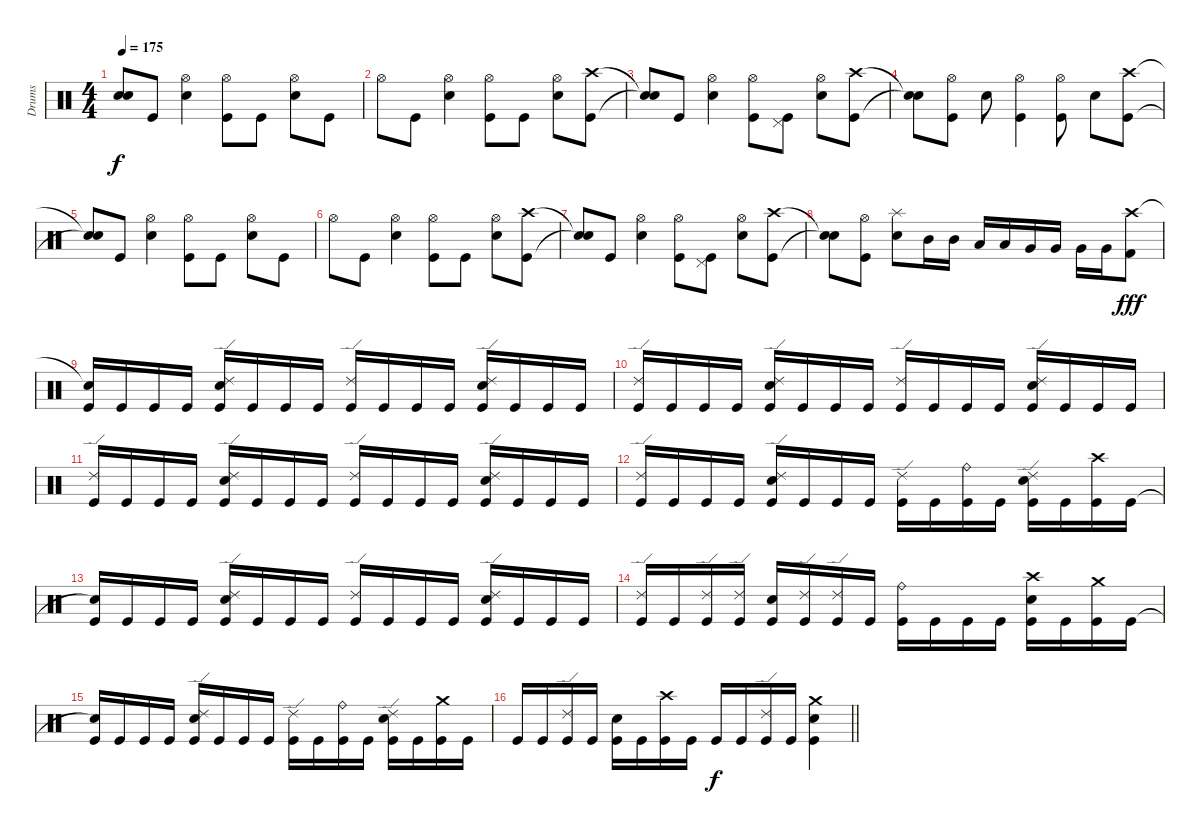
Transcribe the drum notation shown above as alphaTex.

\track ("Drums" "Drums") {instrument percussion}
\staff {score}
\articulation defaults
\ts (4 4)
\tempo 175
\clef neutral
\ks c
("Snare (hit)"{t} "Snare (hit)"{t}).8{dy f} "Kick (hit)".8 ("Hi-Hat (open)" "Electric Snare (hit)").4 ("Hi-Hat (open)" "Kick (hit)").8 "Kick (hit)".8 ("Hi-Hat (open)" "Electric Snare (hit)").8 "Kick (hit)".8 |
"Hi-Hat (open)".8 "Kick (hit)".8 ("Hi-Hat (open)" "Electric Snare (hit)").4 ("Hi-Hat (open)" "Kick (hit)").8 "Kick (hit)".8 ("Hi-Hat (open)" "Electric Snare (hit)").8 ("Crash high (hit)" "Kick (hit)").8 |
("Snare (hit)"{t} "Snare (hit)"{t}).8 "Kick (hit)".8 ("Hi-Hat (open)" "Electric Snare (hit)").4 ("Hi-Hat (open)" "Kick (hit)").8 ("Pedal Hi-Hat (hit)" "Kick (hit)").8 ("Hi-Hat (open)" "Electric Snare (hit)").8 ("Crash high (hit)" "Kick (hit)").8 |
("Snare (hit)"{t} "Snare (hit)"{t}).8 ("Hi-Hat (open)" "Kick (hit)").8 "Electric Snare (hit)".8 ("Hi-Hat (open)" "Kick (hit)").4 ("Hi-Hat (open)" "Kick (hit)").8 "Electric Snare (hit)".8 ("Crash high (hit)" "Kick (hit)").8 |
("Snare (hit)"{t} "Snare (hit)"{t}).8 "Kick (hit)".8 ("Hi-Hat (open)" "Electric Snare (hit)").4 ("Hi-Hat (open)" "Kick (hit)").8 "Kick (hit)".8 ("Hi-Hat (open)" "Electric Snare (hit)").8 "Kick (hit)".8 |
"Hi-Hat (open)".8 "Kick (hit)".8 ("Hi-Hat (open)" "Electric Snare (hit)").4 ("Hi-Hat (open)" "Kick (hit)").8 "Kick (hit)".8 ("Hi-Hat (open)" "Electric Snare (hit)").8 ("Crash high (hit)" "Kick (hit)").8 |
("Snare (hit)"{t} "Snare (hit)"{t}).8 "Kick (hit)".8 ("Hi-Hat (open)" "Electric Snare (hit)").4 ("Hi-Hat (open)" "Kick (hit)").8 ("Pedal Hi-Hat (hit)" "Kick (hit)").8 ("Hi-Hat (open)" "Electric Snare (hit)").8 ("Crash high (hit)" "Kick (hit)").8 |
("Snare (hit)"{t} "Snare (hit)"{t}).8 ("Hi-Hat (open)" "Kick (hit)").8 ("Splash (hit)" "Electric Snare (hit)").8 "Mid Tom (hit)".16 "Mid Tom (hit)".16 "Low Tom (hit)".16 "Low Tom (hit)".16 "Very Low Tom (hit)".16 "Very Low Tom (hit)".16 "Very Low Tom (hit)".16 "Very Low Tom (hit)".16 ("Crash high (hit)" "Kick (hit) 2").8{dy fff} |
("Snare (hit)"{t} "Kick (hit)").16 "Kick (hit)".16 "Kick (hit)".16 "Kick (hit)".16 ("Ride (edge) 2" "Electric Snare (hit)" "Kick (hit)").16 "Kick (hit)".16 "Kick (hit)".16 "Kick (hit)".16 ("Ride (edge) 2" "Kick (hit)").16 "Kick (hit)".16 "Kick (hit)".16 "Kick (hit)".16 ("Ride (edge) 2" "Electric Snare (hit)" "Kick (hit)").16 "Kick (hit)".16 "Kick (hit)".16 "Kick (hit)".16 |
("Ride (edge) 2" "Kick (hit)").16 "Kick (hit)".16 "Kick (hit)".16 "Kick (hit)".16 ("Ride (edge) 2" "Electric Snare (hit)" "Kick (hit)").16 "Kick (hit)".16 "Kick (hit)".16 "Kick (hit)".16 ("Ride (edge) 2" "Kick (hit)").16 "Kick (hit)".16 "Kick (hit)".16 "Kick (hit)".16 ("Ride (edge) 2" "Electric Snare (hit)" "Kick (hit)").16 "Kick (hit)".16 "Kick (hit)".16 "Kick (hit)".16 |
("Ride (edge) 2" "Kick (hit)").16 "Kick (hit)".16 "Kick (hit)".16 "Kick (hit)".16 ("Ride (edge) 2" "Electric Snare (hit)" "Kick (hit)").16 "Kick (hit)".16 "Kick (hit)".16 "Kick (hit)".16 ("Ride (edge) 2" "Kick (hit)").16 "Kick (hit)".16 "Kick (hit)".16 "Kick (hit)".16 ("Ride (edge) 2" "Electric Snare (hit)" "Kick (hit)").16 "Kick (hit)".16 "Kick (hit)".16 "Kick (hit)".16 |
("Ride (edge) 2" "Kick (hit)").16 "Kick (hit)".16 "Kick (hit)".16 "Kick (hit)".16 ("Ride (edge) 2" "Electric Snare (hit)" "Kick (hit)").16 "Kick (hit)".16 "Kick (hit)".16 "Kick (hit)".16 ("Ride (edge) 2" "Kick (hit)").16 "Kick (hit)".16 ("Ride (bell)" "Kick (hit)").16 "Kick (hit)".16 ("Ride (edge) 2" "Electric Snare (hit)" "Kick (hit)").16 "Kick (hit)".16 ("Crash high (hit)" "Kick (hit)").16 "Kick (hit)".16 |
("Snare (hit)"{t} "Kick (hit)").16 "Kick (hit)".16 "Kick (hit)".16 "Kick (hit)".16 ("Ride (edge) 2" "Electric Snare (hit)" "Kick (hit)").16 "Kick (hit)".16 "Kick (hit)".16 "Kick (hit)".16 ("Ride (edge) 2" "Kick (hit)").16 "Kick (hit)".16 "Kick (hit)".16 "Kick (hit)".16 ("Ride (edge) 2" "Electric Snare (hit)" "Kick (hit)").16 "Kick (hit)".16 "Kick (hit)".16 "Kick (hit)".16 |
("Ride (edge) 2" "Kick (hit)").16 "Kick (hit)".16 ("Ride (edge) 2" "Kick (hit)").16 ("Ride (edge) 2" "Kick (hit)").16 ("Electric Snare (hit)" "Kick (hit)").16 ("Ride (edge) 2" "Kick (hit)").16 ("Ride (edge) 2" "Kick (hit)").16 "Kick (hit)".16 ("Ride (bell)" "Kick (hit)").16 "Kick (hit)".16 "Kick (hit)".16 "Kick (hit)".16 ("Crash high (hit)" "Electric Snare (hit)" "Kick (hit)").16 "Kick (hit)".16 ("Crash medium (hit)" "Kick (hit)").16 "Kick (hit)".16 |
("Snare (hit)"{t} "Kick (hit)").16 "Kick (hit)".16 "Kick (hit)".16 "Kick (hit)".16 ("Ride (edge) 2" "Electric Snare (hit)" "Kick (hit)").16 "Kick (hit)".16 "Kick (hit)".16 "Kick (hit)".16 ("Ride (edge) 2" "Kick (hit)").16 "Kick (hit)".16 ("Ride (bell)" "Kick (hit)").16 "Kick (hit)".16 ("Ride (edge) 2" "Electric Snare (hit)" "Kick (hit)").16 "Kick (hit)".16 ("Crash medium (hit)" "Kick (hit)").16 "Kick (hit)".16 |
\barLineRight lightlight "Kick (hit)".16 "Kick (hit)".16
("Ride (edge) 2" "Kick (hit)").16 "Kick (hit)".16 ("Electric Snare (hit)" "Kick (hit)").16 "Kick (hit)".16 ("Crash high (hit)" "Kick (hit)").16 "Kick (hit)".16 "Kick (hit)".16{dy f} "Kick (hit)".16 ("Ride (edge) 2" "Kick (hit)").16 "Kick (hit)".16 ("Crash medium (hit)" "Electric Snare (hit)" "Kick (hit)").4
